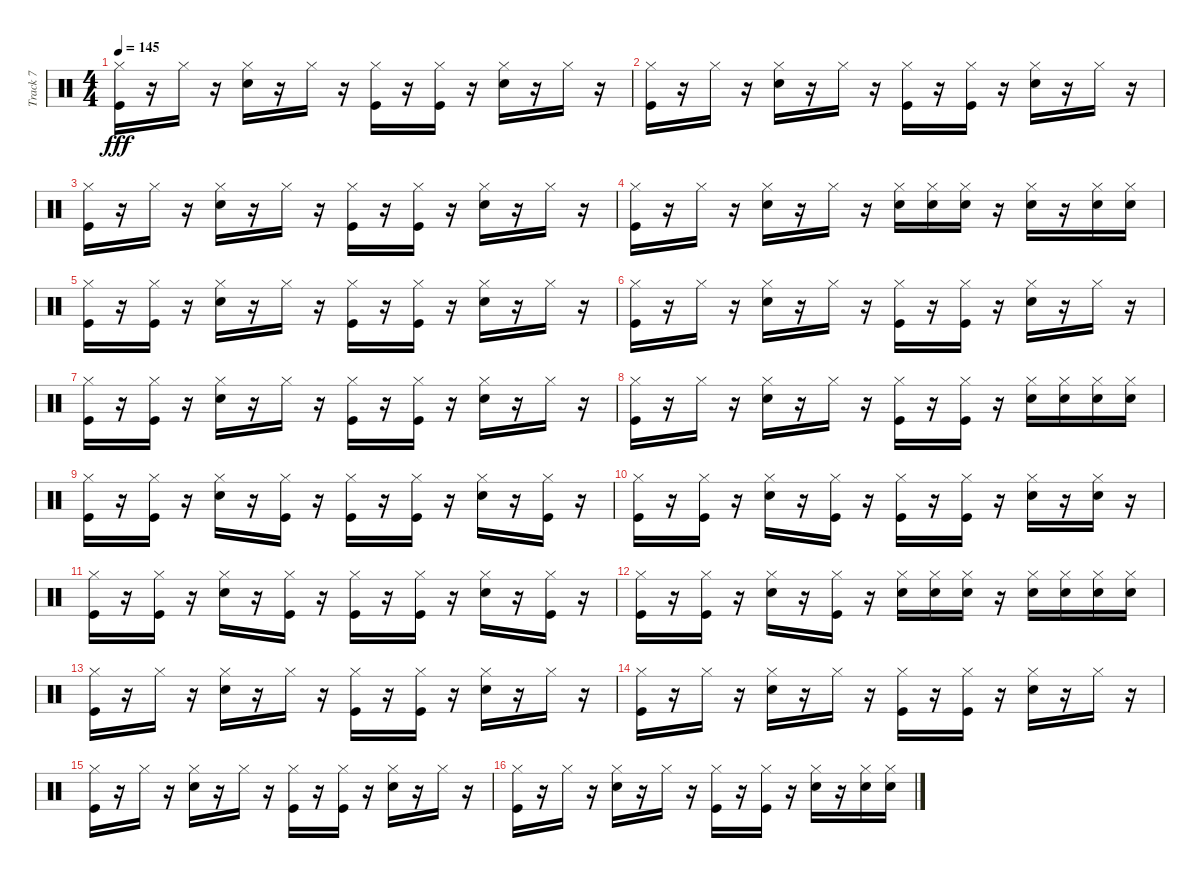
\track ("Track 7" "Track 7") {instrument percussion}
\staff {score}
\articulation defaults
\ts (4 4)
\tempo 145
\clef neutral
\ks c
("Kick (hit)" "Hi-Hat (closed)").16{dy fff} r.16 "Hi-Hat (closed)".16 r.16 ("Snare (hit) 2" "Hi-Hat (closed)").16 r.16 "Hi-Hat (closed)".16 r.16 ("Kick (hit)" "Hi-Hat (closed)").16 r.16 ("Kick (hit)" "Hi-Hat (closed)").16 r.16 ("Snare (hit) 2" "Hi-Hat (closed)").16 r.16 "Hi-Hat (closed)".16 r.16 |
("Kick (hit)" "Hi-Hat (closed)").16 r.16 "Hi-Hat (closed)".16 r.16 ("Snare (hit) 2" "Hi-Hat (closed)").16 r.16 "Hi-Hat (closed)".16 r.16 ("Kick (hit)" "Hi-Hat (closed)").16 r.16 ("Kick (hit)" "Hi-Hat (closed)").16 r.16 ("Snare (hit) 2" "Hi-Hat (closed)").16 r.16 "Hi-Hat (closed)".16 r.16 |
("Kick (hit)" "Hi-Hat (closed)").16 r.16 "Hi-Hat (closed)".16 r.16 ("Snare (hit) 2" "Hi-Hat (closed)").16 r.16 "Hi-Hat (closed)".16 r.16 ("Kick (hit)" "Hi-Hat (closed)").16 r.16 ("Kick (hit)" "Hi-Hat (closed)").16 r.16 ("Snare (hit) 2" "Hi-Hat (closed)").16 r.16 "Hi-Hat (closed)".16 r.16 |
("Kick (hit)" "Hi-Hat (closed)").16 r.16 "Hi-Hat (closed)".16 r.16 ("Snare (hit) 2" "Hi-Hat (closed)").16 r.16 "Hi-Hat (closed)".16 r.16 ("Snare (hit) 2" "Hi-Hat (closed)").16 ("Snare (hit) 2" "Hi-Hat (closed)").16 ("Snare (hit) 2" "Hi-Hat (closed)").16 r.16 ("Snare (hit) 2" "Hi-Hat (closed)").16 r.16 ("Snare (hit) 2" "Hi-Hat (closed)").16 ("Snare (hit) 2" "Hi-Hat (closed)").16 |
("Kick (hit)" "Hi-Hat (closed)").16 r.16 ("Kick (hit)" "Hi-Hat (closed)").16 r.16 ("Snare (hit) 2" "Hi-Hat (closed)").16 r.16 "Hi-Hat (closed)".16 r.16 ("Kick (hit)" "Hi-Hat (closed)").16 r.16 ("Kick (hit)" "Hi-Hat (closed)").16 r.16 ("Snare (hit) 2" "Hi-Hat (closed)").16 r.16 "Hi-Hat (closed)".16 r.16 |
("Kick (hit)" "Hi-Hat (closed)").16 r.16 "Hi-Hat (closed)".16 r.16 ("Snare (hit) 2" "Hi-Hat (closed)").16 r.16 "Hi-Hat (closed)".16 r.16 ("Kick (hit)" "Hi-Hat (closed)").16 r.16 ("Kick (hit)" "Hi-Hat (closed)").16 r.16 ("Snare (hit) 2" "Hi-Hat (closed)").16 r.16 "Hi-Hat (closed)".16 r.16 |
("Kick (hit)" "Hi-Hat (closed)").16 r.16 ("Kick (hit)" "Hi-Hat (closed)").16 r.16 ("Snare (hit) 2" "Hi-Hat (closed)").16 r.16 "Hi-Hat (closed)".16 r.16 ("Kick (hit)" "Hi-Hat (closed)").16 r.16 ("Kick (hit)" "Hi-Hat (closed)").16 r.16 ("Snare (hit) 2" "Hi-Hat (closed)").16 r.16 "Hi-Hat (closed)".16 r.16 |
("Kick (hit)" "Hi-Hat (closed)").16 r.16 "Hi-Hat (closed)".16 r.16 ("Snare (hit) 2" "Hi-Hat (closed)").16 r.16 "Hi-Hat (closed)".16 r.16 ("Kick (hit)" "Hi-Hat (closed)").16 r.16 ("Kick (hit)" "Hi-Hat (closed)").16 r.16 ("Snare (hit) 2" "Hi-Hat (closed)").16 ("Snare (hit) 2" "Hi-Hat (closed)").16 ("Snare (hit) 2" "Hi-Hat (closed)").16 ("Snare (hit) 2" "Hi-Hat (closed)").16 |
("Kick (hit)" "Hi-Hat (closed)").16 r.16 ("Kick (hit)" "Hi-Hat (closed)").16 r.16 ("Snare (hit) 2" "Hi-Hat (closed)").16 r.16 ("Kick (hit)" "Hi-Hat (closed)").16 r.16 ("Kick (hit)" "Hi-Hat (closed)").16 r.16 ("Kick (hit)" "Hi-Hat (closed)").16 r.16 ("Snare (hit) 2" "Hi-Hat (closed)").16 r.16 ("Kick (hit)" "Hi-Hat (closed)").16 r.16 |
("Kick (hit)" "Hi-Hat (closed)").16 r.16 ("Kick (hit)" "Hi-Hat (closed)").16 r.16 ("Snare (hit) 2" "Hi-Hat (closed)").16 r.16 ("Kick (hit)" "Hi-Hat (closed)").16 r.16 ("Kick (hit)" "Hi-Hat (closed)").16 r.16 ("Kick (hit)" "Hi-Hat (closed)").16 r.16 ("Snare (hit) 2" "Hi-Hat (closed)").16 r.16 ("Snare (hit) 2" "Hi-Hat (closed)").16 r.16 |
("Kick (hit)" "Hi-Hat (closed)").16 r.16 ("Kick (hit)" "Hi-Hat (closed)").16 r.16 ("Snare (hit) 2" "Hi-Hat (closed)").16 r.16 ("Kick (hit)" "Hi-Hat (closed)").16 r.16 ("Kick (hit)" "Hi-Hat (closed)").16 r.16 ("Kick (hit)" "Hi-Hat (closed)").16 r.16 ("Snare (hit) 2" "Hi-Hat (closed)").16 r.16 ("Kick (hit)" "Hi-Hat (closed)").16 r.16 |
("Kick (hit)" "Hi-Hat (closed)").16 r.16 ("Kick (hit)" "Hi-Hat (closed)").16 r.16 ("Snare (hit) 2" "Hi-Hat (closed)").16 r.16 ("Kick (hit)" "Hi-Hat (closed)").16 r.16 ("Snare (hit) 2" "Hi-Hat (closed)").16 ("Snare (hit) 2" "Hi-Hat (closed)").16 ("Snare (hit) 2" "Hi-Hat (closed)").16 r.16 ("Snare (hit) 2" "Hi-Hat (closed)").16 ("Snare (hit) 2" "Hi-Hat (closed)").16 ("Snare (hit) 2" "Hi-Hat (closed)").16 ("Snare (hit) 2" "Hi-Hat (closed)").16 |
("Kick (hit)" "Hi-Hat (closed)").16 r.16 "Hi-Hat (closed)".16 r.16 ("Snare (hit) 2" "Hi-Hat (closed)").16 r.16 "Hi-Hat (closed)".16 r.16 ("Kick (hit)" "Hi-Hat (closed)").16 r.16 ("Kick (hit)" "Hi-Hat (closed)").16 r.16 ("Snare (hit) 2" "Hi-Hat (closed)").16 r.16 "Hi-Hat (closed)".16 r.16 |
("Kick (hit)" "Hi-Hat (closed)").16 r.16 "Hi-Hat (closed)".16 r.16 ("Snare (hit) 2" "Hi-Hat (closed)").16 r.16 "Hi-Hat (closed)".16 r.16 ("Kick (hit)" "Hi-Hat (closed)").16 r.16 ("Kick (hit)" "Hi-Hat (closed)").16 r.16 ("Snare (hit) 2" "Hi-Hat (closed)").16 r.16 "Hi-Hat (closed)".16 r.16 |
("Kick (hit)" "Hi-Hat (closed)").16 r.16 "Hi-Hat (closed)".16 r.16 ("Snare (hit) 2" "Hi-Hat (closed)").16 r.16 "Hi-Hat (closed)".16 r.16 ("Kick (hit)" "Hi-Hat (closed)").16 r.16 ("Kick (hit)" "Hi-Hat (closed)").16 r.16 ("Snare (hit) 2" "Hi-Hat (closed)").16 r.16 "Hi-Hat (closed)".16 r.16 |
("Kick (hit)" "Hi-Hat (closed)").16 r.16 "Hi-Hat (closed)".16 r.16 ("Snare (hit) 2" "Hi-Hat (closed)").16 r.16 "Hi-Hat (closed)".16 r.16 ("Kick (hit)" "Hi-Hat (closed)").16 r.16 ("Kick (hit)" "Hi-Hat (closed)").16 r.16 ("Snare (hit) 2" "Hi-Hat (closed)").16 r.16 ("Snare (hit) 2" "Hi-Hat (closed)").16 ("Snare (hit) 2" "Hi-Hat (closed)").16
